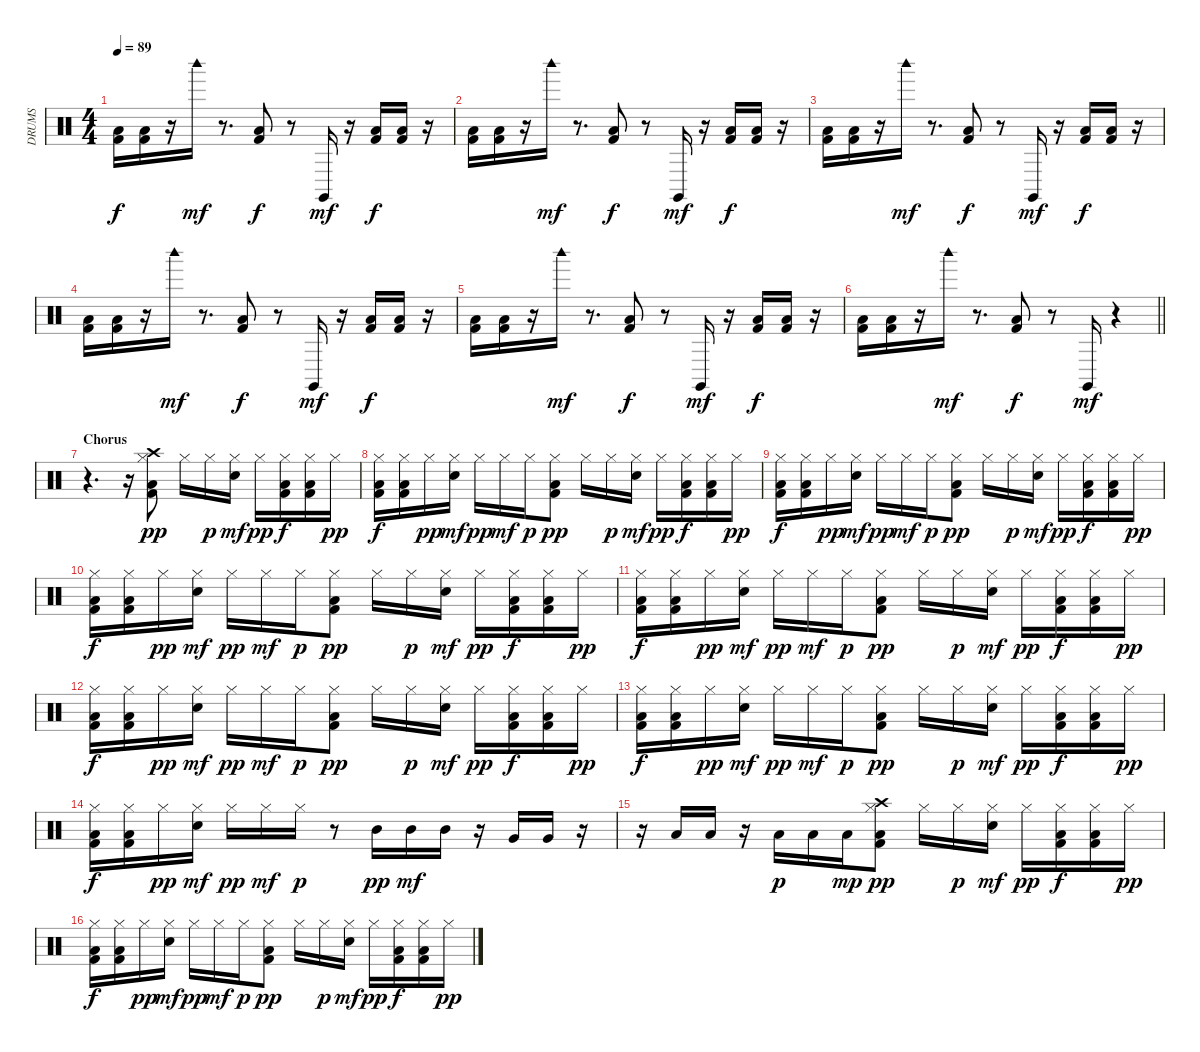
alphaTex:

\track ("DRUMS" "DRUMS") {instrument percussion}
\staff {score}
\articulation defaults
\ts (4 4)
\tempo 89
\clef neutral
\ks c
("Kick (hit) 2" "Low Floor Tom (hit)").16{dy f} ("Kick (hit) 2" "Low Floor Tom (hit)").16 r.16 "Woodblock high (hit)".16{dy mf} r.8{d} ("Kick (hit) 2" "Low Floor Tom (hit)").8{dy f} r.8 "Claves (hit)".16{dy mf} r.16 ("Kick (hit) 2" "Low Floor Tom (hit)").16{dy f} ("Kick (hit) 2" "Low Floor Tom (hit)").16 r.16 |
("Kick (hit) 2" "Low Floor Tom (hit)").16 ("Kick (hit) 2" "Low Floor Tom (hit)").16 r.16 "Woodblock high (hit)".16{dy mf} r.8{d} ("Kick (hit) 2" "Low Floor Tom (hit)").8{dy f} r.8 "Claves (hit)".16{dy mf} r.16 ("Kick (hit) 2" "Low Floor Tom (hit)").16{dy f} ("Kick (hit) 2" "Low Floor Tom (hit)").16 r.16 |
("Kick (hit) 2" "Low Floor Tom (hit)").16 ("Kick (hit) 2" "Low Floor Tom (hit)").16 r.16 "Woodblock high (hit)".16{dy mf} r.8{d} ("Kick (hit) 2" "Low Floor Tom (hit)").8{dy f} r.8 "Claves (hit)".16{dy mf} r.16 ("Kick (hit) 2" "Low Floor Tom (hit)").16{dy f} ("Kick (hit) 2" "Low Floor Tom (hit)").16 r.16 |
("Kick (hit) 2" "Low Floor Tom (hit)").16 ("Kick (hit) 2" "Low Floor Tom (hit)").16 r.16 "Woodblock high (hit)".16{dy mf} r.8{d} ("Kick (hit) 2" "Low Floor Tom (hit)").8{dy f} r.8 "Claves (hit)".16{dy mf} r.16 ("Kick (hit) 2" "Low Floor Tom (hit)").16{dy f} ("Kick (hit) 2" "Low Floor Tom (hit)").16 r.16 |
("Kick (hit) 2" "Low Floor Tom (hit)").16 ("Kick (hit) 2" "Low Floor Tom (hit)").16 r.16 "Woodblock high (hit)".16{dy mf} r.8{d} ("Kick (hit) 2" "Low Floor Tom (hit)").8{dy f} r.8 "Claves (hit)".16{dy mf} r.16 ("Kick (hit) 2" "Low Floor Tom (hit)").16{dy f} ("Kick (hit) 2" "Low Floor Tom (hit)").16 r.16 |
\barLineRight lightlight
("Kick (hit) 2" "Low Floor Tom (hit)").16 ("Kick (hit) 2" "Low Floor Tom (hit)").16 r.16 "Woodblock high (hit)".16{dy mf} r.8{d} ("Kick (hit) 2" "Low Floor Tom (hit)").8{dy f} r.8 "Claves (hit)".16{dy mf} r.4 |
\section ("" "Chorus")
r.4{d} r.16 ("Hi-Hat (closed)" "Crash high (hit)" "Kick (hit) 2" "Low Floor Tom (hit)").8{dy pp} "Hi-Hat (closed)".16 "Hi-Hat (closed)".16{dy p} ("Hand Clap (hit)" "Hi-Hat (closed)").16{dy mf} "Hi-Hat (closed)".16{dy pp} ("Kick (hit) 2" "Low Floor Tom (hit)" "Hi-Hat (closed)").16{dy f} ("Kick (hit) 2" "Low Floor Tom (hit)" "Hi-Hat (closed)").16 "Hi-Hat (closed)".16{dy pp} |
("Kick (hit) 2" "Low Floor Tom (hit)" "Hi-Hat (closed)").16{dy f} ("Kick (hit) 2" "Low Floor Tom (hit)" "Hi-Hat (closed)").16 "Hi-Hat (closed)".16{dy pp} ("Hand Clap (hit)" "Hi-Hat (closed)").16{dy mf} "Hi-Hat (closed)".16{dy pp} "Hi-Hat (closed)".16{dy mf} "Hi-Hat (closed)".16{dy p} ("Hi-Hat (closed)" "Kick (hit) 2" "Low Floor Tom (hit)").8{dy pp} "Hi-Hat (closed)".16 "Hi-Hat (closed)".16{dy p} ("Hand Clap (hit)" "Hi-Hat (closed)").16{dy mf} "Hi-Hat (closed)".16{dy pp} ("Kick (hit) 2" "Low Floor Tom (hit)" "Hi-Hat (closed)").16{dy f} ("Kick (hit) 2" "Low Floor Tom (hit)" "Hi-Hat (closed)").16 "Hi-Hat (closed)".16{dy pp} |
("Kick (hit) 2" "Low Floor Tom (hit)" "Hi-Hat (closed)").16{dy f} ("Kick (hit) 2" "Low Floor Tom (hit)" "Hi-Hat (closed)").16 "Hi-Hat (closed)".16{dy pp} ("Hand Clap (hit)" "Hi-Hat (closed)").16{dy mf} "Hi-Hat (closed)".16{dy pp} "Hi-Hat (closed)".16{dy mf} "Hi-Hat (closed)".16{dy p} ("Hi-Hat (closed)" "Kick (hit) 2" "Low Floor Tom (hit)").8{dy pp} "Hi-Hat (closed)".16 "Hi-Hat (closed)".16{dy p} ("Hand Clap (hit)" "Hi-Hat (closed)").16{dy mf} "Hi-Hat (closed)".16{dy pp} ("Kick (hit) 2" "Low Floor Tom (hit)" "Hi-Hat (closed)").16{dy f} ("Kick (hit) 2" "Low Floor Tom (hit)" "Hi-Hat (closed)").16 "Hi-Hat (closed)".16{dy pp} |
("Kick (hit) 2" "Low Floor Tom (hit)" "Hi-Hat (closed)").16{dy f} ("Kick (hit) 2" "Low Floor Tom (hit)" "Hi-Hat (closed)").16 "Hi-Hat (closed)".16{dy pp} ("Hand Clap (hit)" "Hi-Hat (closed)").16{dy mf} "Hi-Hat (closed)".16{dy pp} "Hi-Hat (closed)".16{dy mf} "Hi-Hat (closed)".16{dy p} ("Hi-Hat (closed)" "Kick (hit) 2" "Low Floor Tom (hit)").8{dy pp} "Hi-Hat (closed)".16 "Hi-Hat (closed)".16{dy p} ("Hand Clap (hit)" "Hi-Hat (closed)").16{dy mf} "Hi-Hat (closed)".16{dy pp} ("Kick (hit) 2" "Low Floor Tom (hit)" "Hi-Hat (closed)").16{dy f} ("Kick (hit) 2" "Low Floor Tom (hit)" "Hi-Hat (closed)").16 "Hi-Hat (closed)".16{dy pp} |
("Kick (hit) 2" "Low Floor Tom (hit)" "Hi-Hat (closed)").16{dy f} ("Kick (hit) 2" "Low Floor Tom (hit)" "Hi-Hat (closed)").16 "Hi-Hat (closed)".16{dy pp} ("Hand Clap (hit)" "Hi-Hat (closed)").16{dy mf} "Hi-Hat (closed)".16{dy pp} "Hi-Hat (closed)".16{dy mf} "Hi-Hat (closed)".16{dy p} ("Hi-Hat (closed)" "Kick (hit) 2" "Low Floor Tom (hit)").8{dy pp} "Hi-Hat (closed)".16 "Hi-Hat (closed)".16{dy p} ("Hand Clap (hit)" "Hi-Hat (closed)").16{dy mf} "Hi-Hat (closed)".16{dy pp} ("Kick (hit) 2" "Low Floor Tom (hit)" "Hi-Hat (closed)").16{dy f} ("Kick (hit) 2" "Low Floor Tom (hit)" "Hi-Hat (closed)").16 "Hi-Hat (closed)".16{dy pp} |
("Kick (hit) 2" "Low Floor Tom (hit)" "Hi-Hat (closed)").16{dy f} ("Kick (hit) 2" "Low Floor Tom (hit)" "Hi-Hat (closed)").16 "Hi-Hat (closed)".16{dy pp} ("Hand Clap (hit)" "Hi-Hat (closed)").16{dy mf} "Hi-Hat (closed)".16{dy pp} "Hi-Hat (closed)".16{dy mf} "Hi-Hat (closed)".16{dy p} ("Hi-Hat (closed)" "Kick (hit) 2" "Low Floor Tom (hit)").8{dy pp} "Hi-Hat (closed)".16 "Hi-Hat (closed)".16{dy p} ("Hand Clap (hit)" "Hi-Hat (closed)").16{dy mf} "Hi-Hat (closed)".16{dy pp} ("Kick (hit) 2" "Low Floor Tom (hit)" "Hi-Hat (closed)").16{dy f} ("Kick (hit) 2" "Low Floor Tom (hit)" "Hi-Hat (closed)").16 "Hi-Hat (closed)".16{dy pp} |
("Kick (hit) 2" "Low Floor Tom (hit)" "Hi-Hat (closed)").16{dy f} ("Kick (hit) 2" "Low Floor Tom (hit)" "Hi-Hat (closed)").16 "Hi-Hat (closed)".16{dy pp} ("Hand Clap (hit)" "Hi-Hat (closed)").16{dy mf} "Hi-Hat (closed)".16{dy pp} "Hi-Hat (closed)".16{dy mf} "Hi-Hat (closed)".16{dy p} ("Hi-Hat (closed)" "Kick (hit) 2" "Low Floor Tom (hit)").8{dy pp} "Hi-Hat (closed)".16 "Hi-Hat (closed)".16{dy p} ("Hand Clap (hit)" "Hi-Hat (closed)").16{dy mf} "Hi-Hat (closed)".16{dy pp} ("Kick (hit) 2" "Low Floor Tom (hit)" "Hi-Hat (closed)").16{dy f} ("Kick (hit) 2" "Low Floor Tom (hit)" "Hi-Hat (closed)").16 "Hi-Hat (closed)".16{dy pp} |
("Kick (hit) 2" "Low Floor Tom (hit)" "Hi-Hat (closed)").16{dy f} ("Kick (hit) 2" "Low Floor Tom (hit)" "Hi-Hat (closed)").16 "Hi-Hat (closed)".16{dy pp} ("Hand Clap (hit)" "Hi-Hat (closed)").16{dy mf} "Hi-Hat (closed)".16{dy pp} "Hi-Hat (closed)".16{dy mf} "Hi-Hat (closed)".16{dy p} r.8 "Mid Tom (hit)".16{dy pp} "Mid Tom (hit)".16{dy mf} "Mid Tom (hit)".16 r.16 "Very Low Tom (hit)".16 "Very Low Tom (hit)".16 r.16 |
r.16 "Low Floor Tom (hit)".16 "Low Floor Tom (hit)".16 r.16 "Low Floor Tom (hit)".16{dy p} "Low Floor Tom (hit)".16 "Low Floor Tom (hit)".16{dy mp} ("Hi-Hat (closed)" "Crash high (hit)" "Kick (hit) 2" "Low Floor Tom (hit)").8{dy pp} "Hi-Hat (closed)".16 "Hi-Hat (closed)".16{dy p} ("Hand Clap (hit)" "Hi-Hat (closed)").16{dy mf} "Hi-Hat (closed)".16{dy pp} ("Kick (hit) 2" "Low Floor Tom (hit)" "Hi-Hat (closed)").16{dy f} ("Kick (hit) 2" "Low Floor Tom (hit)" "Hi-Hat (closed)").16 "Hi-Hat (closed)".16{dy pp} |
("Kick (hit) 2" "Low Floor Tom (hit)" "Hi-Hat (closed)").16{dy f} ("Kick (hit) 2" "Low Floor Tom (hit)" "Hi-Hat (closed)").16 "Hi-Hat (closed)".16{dy pp} ("Hand Clap (hit)" "Hi-Hat (closed)").16{dy mf} "Hi-Hat (closed)".16{dy pp} "Hi-Hat (closed)".16{dy mf} "Hi-Hat (closed)".16{dy p} ("Hi-Hat (closed)" "Kick (hit) 2" "Low Floor Tom (hit)").8{dy pp} "Hi-Hat (closed)".16 "Hi-Hat (closed)".16{dy p} ("Hand Clap (hit)" "Hi-Hat (closed)").16{dy mf} "Hi-Hat (closed)".16{dy pp} ("Kick (hit) 2" "Low Floor Tom (hit)" "Hi-Hat (closed)").16{dy f} ("Kick (hit) 2" "Low Floor Tom (hit)" "Hi-Hat (closed)").16 "Hi-Hat (closed)".16{dy pp}
